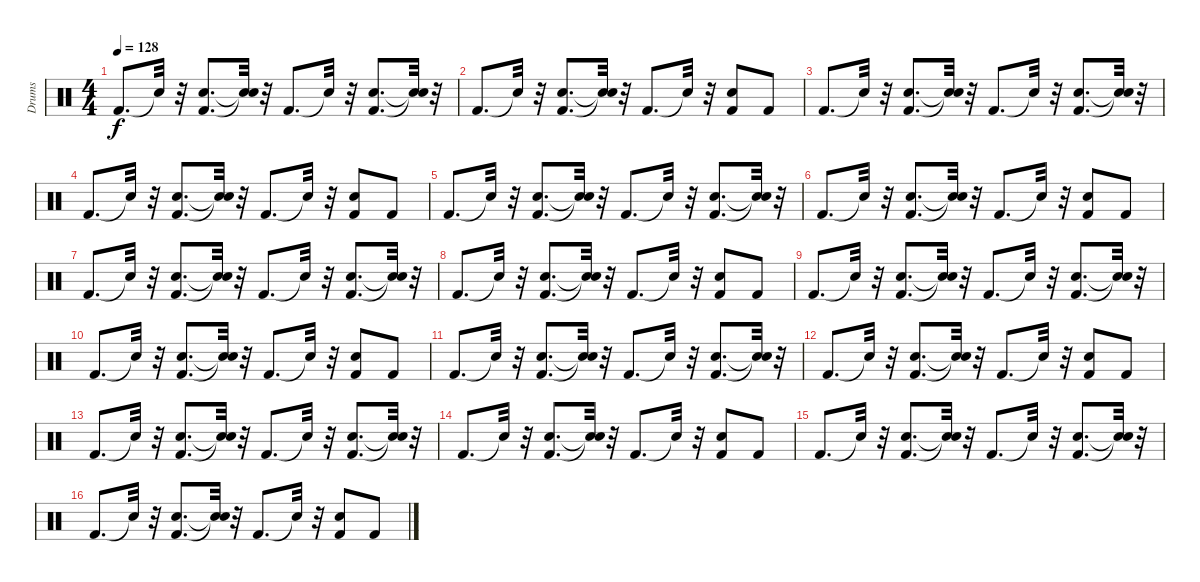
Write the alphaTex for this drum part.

\track ("Drums" "Drums") {instrument percussion}
\staff {score}
\articulation defaults
\ts (4 4)
\tempo 128
\clef neutral
\ks c "Kick (hit) 2".8{d dy f} "Snare (hit)"{t}.32
r.32 ("Kick (hit) 2" "Snare (hit) 2").8{d} ("Snare (hit)"{t} "Snare (hit)"{t}).32 r.32 "Kick (hit) 2".8{d} "Snare (hit)"{t}.32 r.32 ("Snare (hit) 2" "Kick (hit) 2").8{d} ("Snare (hit)"{t} "Snare (hit)"{t}).32 r.32 |
"Kick (hit) 2".8{d} "Snare (hit)"{t}.32 r.32 ("Kick (hit) 2" "Snare (hit) 2").8{d} ("Snare (hit)"{t} "Snare (hit)"{t}).32 r.32 "Kick (hit) 2".8{d} "Snare (hit)"{t}.32 r.32 ("Snare (hit) 2" "Kick (hit) 2").8 "Kick (hit) 2".8 |
"Kick (hit) 2".8{d} "Snare (hit)"{t}.32 r.32 ("Snare (hit) 2" "Kick (hit) 2").8{d} ("Snare (hit)"{t} "Snare (hit)"{t}).32 r.32 "Kick (hit) 2".8{d} "Snare (hit)"{t}.32 r.32 ("Snare (hit) 2" "Kick (hit) 2").8{d} ("Snare (hit)"{t} "Snare (hit)"{t}).32 r.32 |
"Kick (hit) 2".8{d} "Snare (hit)"{t}.32 r.32 ("Kick (hit) 2" "Snare (hit) 2").8{d} ("Snare (hit)"{t} "Snare (hit)"{t}).32 r.32 "Kick (hit) 2".8{d} "Snare (hit)"{t}.32 r.32 ("Kick (hit) 2" "Snare (hit) 2").8 "Kick (hit) 2".8 |
"Kick (hit) 2".8{d} "Snare (hit)"{t}.32 r.32 ("Kick (hit) 2" "Snare (hit) 2").8{d} ("Snare (hit)"{t} "Snare (hit)"{t}).32 r.32 "Kick (hit) 2".8{d} "Snare (hit)"{t}.32 r.32 ("Snare (hit) 2" "Kick (hit) 2").8{d} ("Snare (hit)"{t} "Snare (hit)"{t}).32 r.32 |
"Kick (hit) 2".8{d} "Snare (hit)"{t}.32 r.32 ("Snare (hit) 2" "Kick (hit) 2").8{d} ("Snare (hit)"{t} "Snare (hit)"{t}).32 r.32 "Kick (hit) 2".8{d} "Snare (hit)"{t}.32 r.32 ("Snare (hit) 2" "Kick (hit) 2").8 "Kick (hit) 2".8 |
"Kick (hit) 2".8{d} "Snare (hit)"{t}.32 r.32 ("Kick (hit) 2" "Snare (hit) 2").8{d} ("Snare (hit)"{t} "Snare (hit)"{t}).32 r.32 "Kick (hit) 2".8{d} "Snare (hit)"{t}.32 r.32 ("Kick (hit) 2" "Snare (hit) 2").8{d} ("Snare (hit)"{t} "Snare (hit)"{t}).32 r.32 |
"Kick (hit) 2".8{d} "Snare (hit)"{t}.32 r.32 ("Snare (hit) 2" "Kick (hit) 2").8{d} ("Snare (hit)"{t} "Snare (hit)"{t}).32 r.32 "Kick (hit) 2".8{d} "Snare (hit)"{t}.32 r.32 ("Kick (hit) 2" "Snare (hit) 2").8 "Kick (hit) 2".8 |
"Kick (hit) 2".8{d} "Snare (hit)"{t}.32 r.32 ("Snare (hit) 2" "Kick (hit) 2").8{d} ("Snare (hit)"{t} "Snare (hit)"{t}).32 r.32 "Kick (hit) 2".8{d} "Snare (hit)"{t}.32 r.32 ("Kick (hit) 2" "Snare (hit) 2").8{d} ("Snare (hit)"{t} "Snare (hit)"{t}).32 r.32 |
"Kick (hit) 2".8{d} "Snare (hit)"{t}.32 r.32 ("Snare (hit) 2" "Kick (hit) 2").8{d} ("Snare (hit)"{t} "Snare (hit)"{t}).32 r.32 "Kick (hit) 2".8{d} "Snare (hit)"{t}.32 r.32 ("Kick (hit) 2" "Snare (hit) 2").8 "Kick (hit) 2".8 |
"Kick (hit) 2".8{d} "Snare (hit)"{t}.32 r.32 ("Snare (hit) 2" "Kick (hit) 2").8{d} ("Snare (hit)"{t} "Snare (hit)"{t}).32 r.32 "Kick (hit) 2".8{d} "Snare (hit)"{t}.32 r.32 ("Snare (hit) 2" "Kick (hit) 2").8{d} ("Snare (hit)"{t} "Snare (hit)"{t}).32 r.32 |
"Kick (hit) 2".8{d} "Snare (hit)"{t}.32 r.32 ("Snare (hit) 2" "Kick (hit) 2").8{d} ("Snare (hit)"{t} "Snare (hit)"{t}).32 r.32 "Kick (hit) 2".8{d} "Snare (hit)"{t}.32 r.32 ("Kick (hit) 2" "Snare (hit) 2").8 "Kick (hit) 2".8 |
"Kick (hit) 2".8{d} "Snare (hit)"{t}.32 r.32 ("Snare (hit) 2" "Kick (hit) 2").8{d} ("Snare (hit)"{t} "Snare (hit)"{t}).32 r.32 "Kick (hit) 2".8{d} "Snare (hit)"{t}.32 r.32 ("Kick (hit) 2" "Snare (hit) 2").8{d} ("Snare (hit)"{t} "Snare (hit)"{t}).32 r.32 |
"Kick (hit) 2".8{d} "Snare (hit)"{t}.32 r.32 ("Snare (hit) 2" "Kick (hit) 2").8{d} ("Snare (hit)"{t} "Snare (hit)"{t}).32 r.32 "Kick (hit) 2".8{d} "Snare (hit)"{t}.32 r.32 ("Snare (hit) 2" "Kick (hit) 2").8 "Kick (hit) 2".8 |
"Kick (hit) 2".8{d} "Snare (hit)"{t}.32 r.32 ("Snare (hit) 2" "Kick (hit) 2").8{d} ("Snare (hit)"{t} "Snare (hit)"{t}).32 r.32 "Kick (hit) 2".8{d} "Snare (hit)"{t}.32 r.32 ("Kick (hit) 2" "Snare (hit) 2").8{d} ("Snare (hit)"{t} "Snare (hit)"{t}).32 r.32 |
"Kick (hit) 2".8{d} "Snare (hit)"{t}.32 r.32 ("Snare (hit) 2" "Kick (hit) 2").8{d} ("Snare (hit)"{t} "Snare (hit)"{t}).32 r.32 "Kick (hit) 2".8{d} "Snare (hit)"{t}.32 r.32 ("Kick (hit) 2" "Snare (hit) 2").8 "Kick (hit) 2".8
